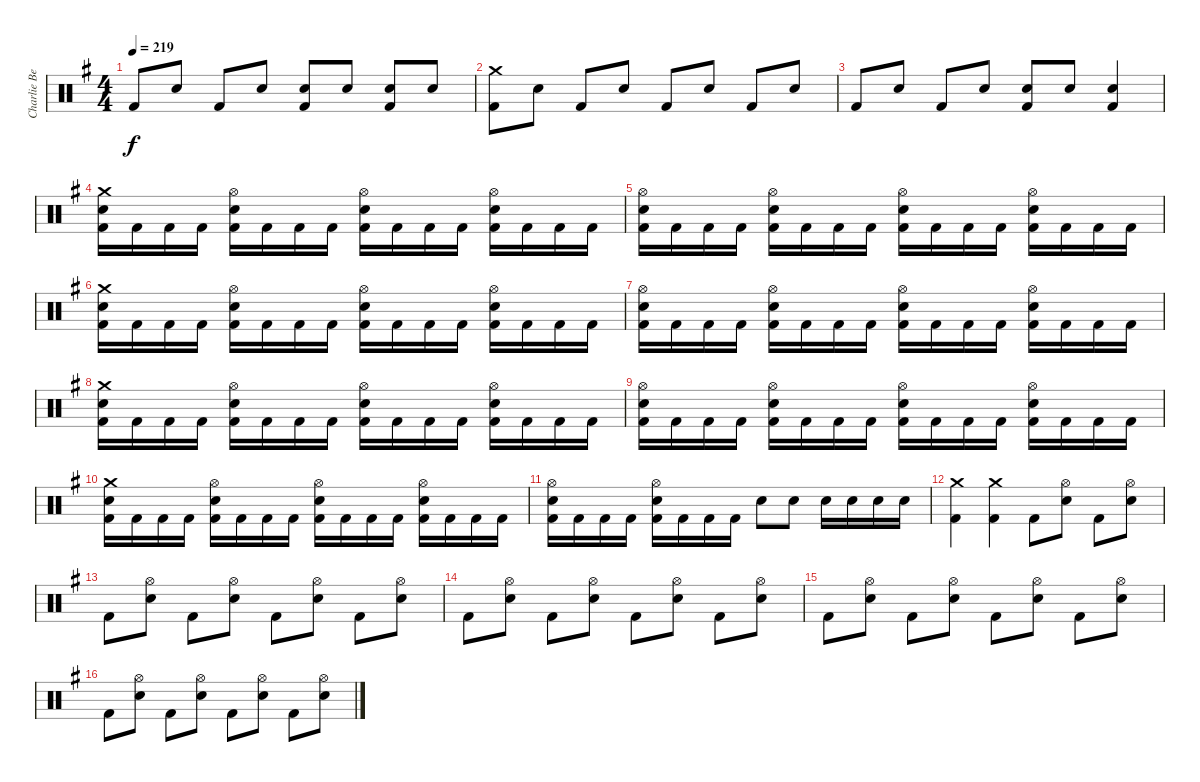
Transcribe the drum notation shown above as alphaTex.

\track ("Charlie Benate" "Charlie Be") {instrument percussion}
\staff {score}
\articulation defaults
\ts (4 4)
\tempo 219
\clef neutral
\ks g "Kick (hit) 2".8{dy f} "Snare (hit) 2".8 "Kick (hit) 2".8 "Snare (hit) 2".8
("Snare (hit) 2" "Kick (hit) 2").8 "Snare (hit) 2".8 ("Snare (hit) 2" "Kick (hit) 2").8 "Snare (hit) 2".8 |
("Crash medium (hit)" "Kick (hit) 2").8 "Snare (hit) 2".8 "Kick (hit) 2".8 "Snare (hit) 2".8 "Kick (hit) 2".8 "Snare (hit) 2".8 "Kick (hit) 2".8 "Snare (hit) 2".8 |
"Kick (hit) 2".8 "Snare (hit) 2".8 "Kick (hit) 2".8 "Snare (hit) 2".8 ("Snare (hit) 2" "Kick (hit) 2").8 "Snare (hit) 2".8 ("Snare (hit) 2" "Kick (hit) 2").4 |
("Crash medium (hit)" "Snare (hit) 2" "Kick (hit) 2").16 "Kick (hit) 2".16 "Kick (hit) 2".16 "Kick (hit) 2".16 ("Hi-Hat (open)" "Snare (hit) 2" "Kick (hit) 2").16 "Kick (hit) 2".16 "Kick (hit) 2".16 "Kick (hit) 2".16 ("Hi-Hat (open)" "Snare (hit) 2" "Kick (hit) 2").16 "Kick (hit) 2".16 "Kick (hit) 2".16 "Kick (hit) 2".16 ("Hi-Hat (open)" "Snare (hit) 2" "Kick (hit) 2").16 "Kick (hit) 2".16 "Kick (hit) 2".16 "Kick (hit) 2".16 |
("Hi-Hat (open)" "Snare (hit) 2" "Kick (hit) 2").16 "Kick (hit) 2".16 "Kick (hit) 2".16 "Kick (hit) 2".16 ("Hi-Hat (open)" "Snare (hit) 2" "Kick (hit) 2").16 "Kick (hit) 2".16 "Kick (hit) 2".16 "Kick (hit) 2".16 ("Hi-Hat (open)" "Snare (hit) 2" "Kick (hit) 2").16 "Kick (hit) 2".16 "Kick (hit) 2".16 "Kick (hit) 2".16 ("Hi-Hat (open)" "Snare (hit) 2" "Kick (hit) 2").16 "Kick (hit) 2".16 "Kick (hit) 2".16 "Kick (hit) 2".16 |
("Crash medium (hit)" "Snare (hit) 2" "Kick (hit) 2").16 "Kick (hit) 2".16 "Kick (hit) 2".16 "Kick (hit) 2".16 ("Hi-Hat (open)" "Snare (hit) 2" "Kick (hit) 2").16 "Kick (hit) 2".16 "Kick (hit) 2".16 "Kick (hit) 2".16 ("Hi-Hat (open)" "Snare (hit) 2" "Kick (hit) 2").16 "Kick (hit) 2".16 "Kick (hit) 2".16 "Kick (hit) 2".16 ("Hi-Hat (open)" "Snare (hit) 2" "Kick (hit) 2").16 "Kick (hit) 2".16 "Kick (hit) 2".16 "Kick (hit) 2".16 |
("Hi-Hat (open)" "Snare (hit) 2" "Kick (hit) 2").16 "Kick (hit) 2".16 "Kick (hit) 2".16 "Kick (hit) 2".16 ("Hi-Hat (open)" "Snare (hit) 2" "Kick (hit) 2").16 "Kick (hit) 2".16 "Kick (hit) 2".16 "Kick (hit) 2".16 ("Hi-Hat (open)" "Snare (hit) 2" "Kick (hit) 2").16 "Kick (hit) 2".16 "Kick (hit) 2".16 "Kick (hit) 2".16 ("Hi-Hat (open)" "Snare (hit) 2" "Kick (hit) 2").16 "Kick (hit) 2".16 "Kick (hit) 2".16 "Kick (hit) 2".16 |
("Crash medium (hit)" "Snare (hit) 2" "Kick (hit) 2").16 "Kick (hit) 2".16 "Kick (hit) 2".16 "Kick (hit) 2".16 ("Hi-Hat (open)" "Snare (hit) 2" "Kick (hit) 2").16 "Kick (hit) 2".16 "Kick (hit) 2".16 "Kick (hit) 2".16 ("Hi-Hat (open)" "Snare (hit) 2" "Kick (hit) 2").16 "Kick (hit) 2".16 "Kick (hit) 2".16 "Kick (hit) 2".16 ("Hi-Hat (open)" "Snare (hit) 2" "Kick (hit) 2").16 "Kick (hit) 2".16 "Kick (hit) 2".16 "Kick (hit) 2".16 |
("Hi-Hat (open)" "Snare (hit) 2" "Kick (hit) 2").16 "Kick (hit) 2".16 "Kick (hit) 2".16 "Kick (hit) 2".16 ("Hi-Hat (open)" "Snare (hit) 2" "Kick (hit) 2").16 "Kick (hit) 2".16 "Kick (hit) 2".16 "Kick (hit) 2".16 ("Hi-Hat (open)" "Snare (hit) 2" "Kick (hit) 2").16 "Kick (hit) 2".16 "Kick (hit) 2".16 "Kick (hit) 2".16 ("Hi-Hat (open)" "Snare (hit) 2" "Kick (hit) 2").16 "Kick (hit) 2".16 "Kick (hit) 2".16 "Kick (hit) 2".16 |
("Crash medium (hit)" "Snare (hit) 2" "Kick (hit) 2").16 "Kick (hit) 2".16 "Kick (hit) 2".16 "Kick (hit) 2".16 ("Hi-Hat (open)" "Snare (hit) 2" "Kick (hit) 2").16 "Kick (hit) 2".16 "Kick (hit) 2".16 "Kick (hit) 2".16 ("Hi-Hat (open)" "Snare (hit) 2" "Kick (hit) 2").16 "Kick (hit) 2".16 "Kick (hit) 2".16 "Kick (hit) 2".16 ("Hi-Hat (open)" "Snare (hit) 2" "Kick (hit) 2").16 "Kick (hit) 2".16 "Kick (hit) 2".16 "Kick (hit) 2".16 |
("Hi-Hat (open)" "Snare (hit) 2" "Kick (hit) 2").16 "Kick (hit) 2".16 "Kick (hit) 2".16 "Kick (hit) 2".16 ("Hi-Hat (open)" "Snare (hit) 2" "Kick (hit) 2").16 "Kick (hit) 2".16 "Kick (hit) 2".16 "Kick (hit) 2".16 "Snare (hit) 2".8 "Snare (hit) 2".8 "Snare (hit) 2".16 "Snare (hit) 2".16 "Snare (hit) 2".16 "Snare (hit) 2".16 |
("Crash medium (hit)" "Kick (hit) 2").4 ("Crash medium (hit)" "Kick (hit) 2").4 "Kick (hit) 2".8 ("Hi-Hat (open)" "Snare (hit) 2").8 "Kick (hit) 2".8 ("Hi-Hat (open)" "Snare (hit) 2").8 |
"Kick (hit) 2".8 ("Hi-Hat (open)" "Snare (hit) 2").8 "Kick (hit) 2".8 ("Hi-Hat (open)" "Snare (hit) 2").8 "Kick (hit) 2".8 ("Hi-Hat (open)" "Snare (hit) 2").8 "Kick (hit) 2".8 ("Hi-Hat (open)" "Snare (hit) 2").8 |
"Kick (hit) 2".8 ("Hi-Hat (open)" "Snare (hit) 2").8 "Kick (hit) 2".8 ("Hi-Hat (open)" "Snare (hit) 2").8 "Kick (hit) 2".8 ("Hi-Hat (open)" "Snare (hit) 2").8 "Kick (hit) 2".8 ("Hi-Hat (open)" "Snare (hit) 2").8 |
"Kick (hit) 2".8 ("Hi-Hat (open)" "Snare (hit) 2").8 "Kick (hit) 2".8 ("Hi-Hat (open)" "Snare (hit) 2").8 "Kick (hit) 2".8 ("Hi-Hat (open)" "Snare (hit) 2").8 "Kick (hit) 2".8 ("Hi-Hat (open)" "Snare (hit) 2").8 |
"Kick (hit) 2".8 ("Hi-Hat (open)" "Snare (hit) 2").8 "Kick (hit) 2".8 ("Hi-Hat (open)" "Snare (hit) 2").8 "Kick (hit) 2".8 ("Hi-Hat (open)" "Snare (hit) 2").8 "Kick (hit) 2".8 ("Hi-Hat (open)" "Snare (hit) 2").8
